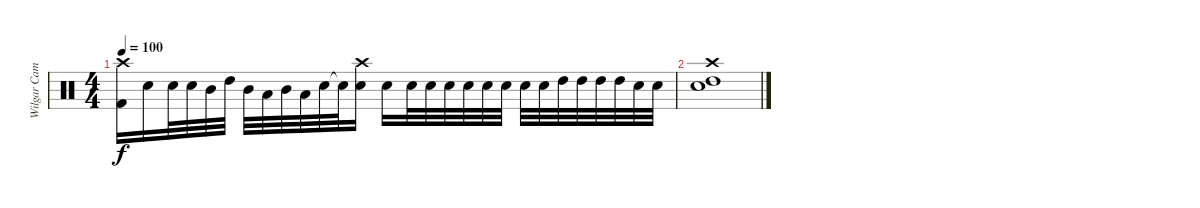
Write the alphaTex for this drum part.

\track ("Wilgar Campbell" "Wilgar Cam") {instrument percussion}
\staff {score}
\articulation defaults
\ts (4 4)
\tempo 100
\clef neutral
\ks c
("Crash high (hit)" "Kick (hit) 2").16{dy f} "Electric Snare (hit)".16 "Snare (hit) 2".32 "Electric Snare (hit)".32 "Mid Tom (hit)".32 "High Tom (hit)".32 "Mid Tom (hit)".32 "Low Tom (hit)".32 "Mid Tom (hit)".32 "Low Tom (hit)".32 "Electric Snare (hit)".32 "Snare (hit)"{t}.32 ("Crash high (hit)" "Electric Snare (hit)").16 "Electric Snare (hit)".16 "Snare (hit) 2".32 "Snare (hit) 2".32 "Snare (hit) 2".32 "Snare (hit) 2".32 "Electric Snare (hit)".32 "Electric Snare (hit)".32 "Electric Snare (hit)".32 "Electric Snare (hit)".32 "High Tom (hit)".32 "High Tom (hit)".32 "High Tom (hit)".32 "High Tom (hit)".32 "Electric Snare (hit)".32 "Electric Snare (hit)".32 |
("Crash high (hit)" "High Tom (hit)" "Electric Snare (hit)").1
